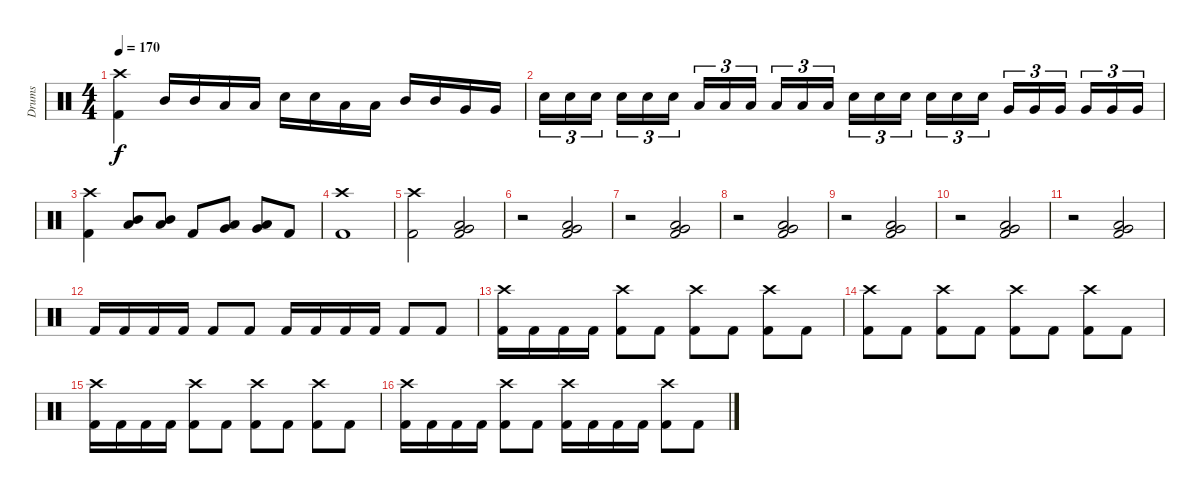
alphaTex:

\track ("Drums" "Drums") {instrument percussion}
\staff {score}
\articulation defaults
\ts (4 4)
\tempo 170
\clef neutral
\ks c
("Crash high (hit)" "Kick (hit) 2").4{dy f} "Mid Tom (hit)".16 "Mid Tom (hit)".16 "Low Tom (hit)".16 "Low Tom (hit)".16 "Electric Snare (hit)".16 "Electric Snare (hit)".16 "Low Tom (hit)".16 "Low Tom (hit)".16 "Mid Tom (hit)".16 "Mid Tom (hit)".16 "Very Low Tom (hit)".16 "Very Low Tom (hit)".16 |
"Electric Snare (hit)".16{tu (3 2)} "Electric Snare (hit)".16{tu (3 2)} "Electric Snare (hit)".16{tu (3 2) beam splitsecondary} "Electric Snare (hit)".16{tu (3 2)} "Electric Snare (hit)".16{tu (3 2)} "Electric Snare (hit)".16{tu (3 2)} "Low Tom (hit)".16{tu (3 2)} "Low Tom (hit)".16{tu (3 2)} "Low Tom (hit)".16{tu (3 2) beam splitsecondary} "Low Tom (hit)".16{tu (3 2)} "Low Tom (hit)".16{tu (3 2)} "Low Tom (hit)".16{tu (3 2)} "Electric Snare (hit)".16{tu (3 2)} "Electric Snare (hit)".16{tu (3 2)} "Electric Snare (hit)".16{tu (3 2) beam splitsecondary} "Electric Snare (hit)".16{tu (3 2)} "Electric Snare (hit)".16{tu (3 2)} "Electric Snare (hit)".16{tu (3 2)} "Very Low Tom (hit)".16{tu (3 2)} "Very Low Tom (hit)".16{tu (3 2)} "Very Low Tom (hit)".16{tu (3 2) beam splitsecondary} "Very Low Tom (hit)".16{tu (3 2)} "Very Low Tom (hit)".16{tu (3 2)} "Very Low Tom (hit)".16{tu (3 2)} |
("Crash high (hit)" "Kick (hit) 2").4 ("Mid Tom (hit)" "Low Tom (hit)").8 ("Mid Tom (hit)" "Low Tom (hit)").8 "Kick (hit) 2".8 ("Low Tom (hit)" "Very Low Tom (hit)").8 ("Low Tom (hit)" "Very Low Tom (hit)").8 "Kick (hit) 2".8 |
("Crash high (hit)" "Kick (hit) 2").1 |
("Crash high (hit)" "Kick (hit) 2").2 ("Very Low Tom (hit)" "Low Floor Tom (hit)" "Kick (hit) 2").2 |
r.2 ("Very Low Tom (hit)" "Low Floor Tom (hit)" "Kick (hit) 2").2 |
r.2 ("Very Low Tom (hit)" "Low Floor Tom (hit)" "Kick (hit) 2").2 |
r.2 ("Very Low Tom (hit)" "Low Floor Tom (hit)" "Kick (hit) 2").2 |
r.2 ("Very Low Tom (hit)" "Low Floor Tom (hit)" "Kick (hit) 2").2 |
r.2 ("Very Low Tom (hit)" "Low Floor Tom (hit)" "Kick (hit) 2").2 |
r.2 ("Very Low Tom (hit)" "Low Floor Tom (hit)" "Kick (hit) 2").2 |
"Kick (hit) 2".16 "Kick (hit) 2".16 "Kick (hit) 2".16 "Kick (hit) 2".16 "Kick (hit) 2".8 "Kick (hit) 2".8 "Kick (hit) 2".16 "Kick (hit) 2".16 "Kick (hit) 2".16 "Kick (hit) 2".16 "Kick (hit) 2".8 "Kick (hit) 2".8 |
("Crash high (hit)" "Kick (hit) 2").16 "Kick (hit) 2".16 "Kick (hit) 2".16 "Kick (hit) 2".16 ("Crash high (hit)" "Kick (hit) 2").8 "Kick (hit) 2".8 ("Crash high (hit)" "Kick (hit) 2").8 "Kick (hit) 2".8 ("Crash high (hit)" "Kick (hit) 2").8 "Kick (hit) 2".8 |
("Crash high (hit)" "Kick (hit) 2").8 "Kick (hit) 2".8 ("Crash high (hit)" "Kick (hit) 2").8 "Kick (hit) 2".8 ("Crash high (hit)" "Kick (hit) 2").8 "Kick (hit) 2".8 ("Crash high (hit)" "Kick (hit) 2").8 "Kick (hit) 2".8 |
("Crash high (hit)" "Kick (hit) 2").16 "Kick (hit) 2".16 "Kick (hit) 2".16 "Kick (hit) 2".16 ("Crash high (hit)" "Kick (hit) 2").8 "Kick (hit) 2".8 ("Crash high (hit)" "Kick (hit) 2").8 "Kick (hit) 2".8 ("Crash high (hit)" "Kick (hit) 2").8 "Kick (hit) 2".8 |
("Crash high (hit)" "Kick (hit) 2").16 "Kick (hit) 2".16 "Kick (hit) 2".16 "Kick (hit) 2".16 ("Crash high (hit)" "Kick (hit) 2").8 "Kick (hit) 2".8 ("Crash high (hit)" "Kick (hit) 2").16 "Kick (hit) 2".16 "Kick (hit) 2".16 "Kick (hit) 2".16 ("Crash high (hit)" "Kick (hit) 2").8 "Kick (hit) 2".8
